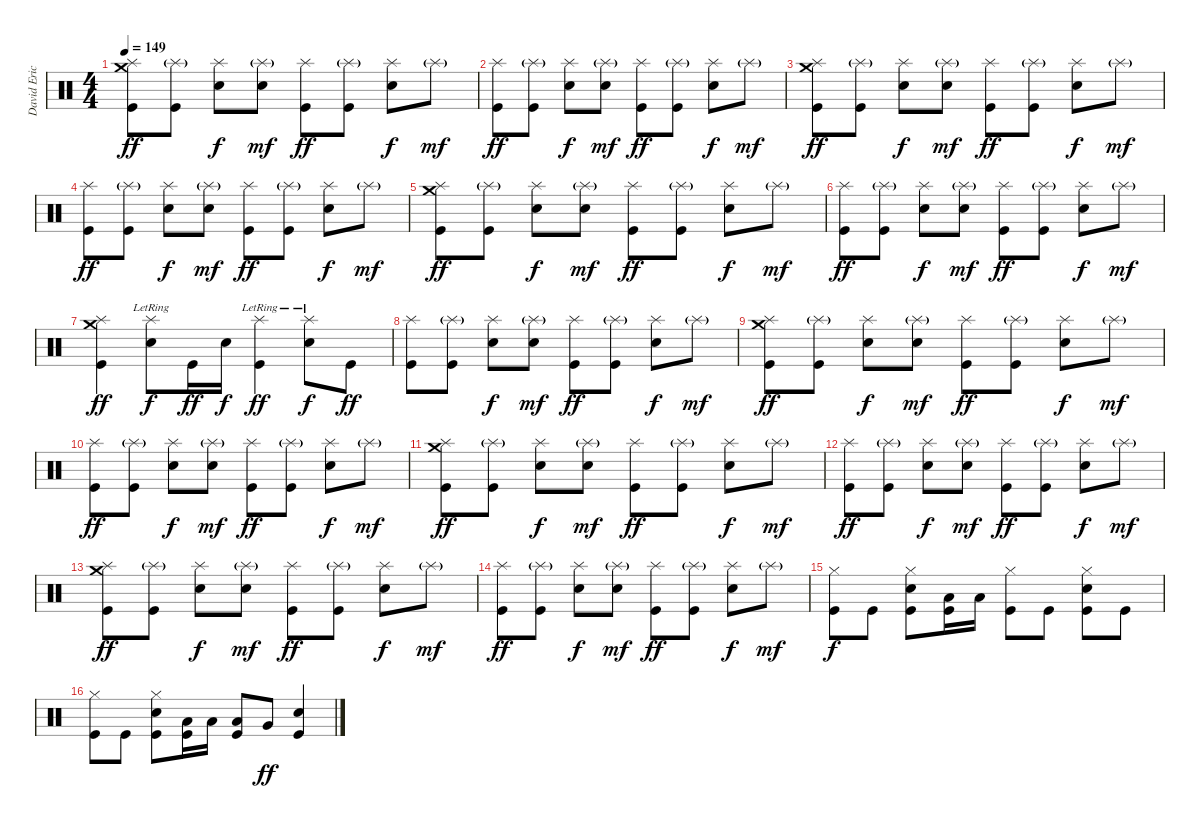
\track ("David Eric Grohl" "David Eric") {instrument percussion}
\staff {score}
\articulation defaults
\ts (4 4)
\tempo 149
\clef neutral
\ks c
("Crash medium (hit)" "Splash (hit)" "Kick (hit)").8{dy ff} ("Splash (hit)"{g} "Kick (hit)").8 ("Splash (hit)" "Snare (hit) 2").8{dy f} ("Splash (hit)"{g} "Snare (hit) 2").8{dy mf} ("Splash (hit)" "Kick (hit)").8{dy ff} ("Splash (hit)"{g} "Kick (hit)").8 ("Splash (hit)" "Snare (hit) 2").8{dy f} "Splash (hit)"{g}.8{dy mf} |
("Splash (hit)" "Kick (hit)").8{dy ff} ("Splash (hit)"{g} "Kick (hit)").8 ("Splash (hit)" "Snare (hit) 2").8{dy f} ("Splash (hit)"{g} "Snare (hit) 2").8{dy mf} ("Splash (hit)" "Kick (hit)").8{dy ff} ("Splash (hit)"{g} "Kick (hit)").8 ("Splash (hit)" "Snare (hit) 2").8{dy f} "Splash (hit)"{g}.8{dy mf} |
("Crash medium (hit)" "Splash (hit)" "Kick (hit)").8{dy ff} ("Splash (hit)"{g} "Kick (hit)").8 ("Splash (hit)" "Snare (hit) 2").8{dy f} ("Splash (hit)"{g} "Snare (hit) 2").8{dy mf} ("Splash (hit)" "Kick (hit)").8{dy ff} ("Splash (hit)"{g} "Kick (hit)").8 ("Splash (hit)" "Snare (hit) 2").8{dy f} "Splash (hit)"{g}.8{dy mf} |
("Splash (hit)" "Kick (hit)").8{dy ff} ("Splash (hit)"{g} "Kick (hit)").8 ("Splash (hit)" "Snare (hit) 2").8{dy f} ("Splash (hit)"{g} "Snare (hit) 2").8{dy mf} ("Splash (hit)" "Kick (hit)").8{dy ff} ("Splash (hit)"{g} "Kick (hit)").8 ("Splash (hit)" "Snare (hit) 2").8{dy f} "Splash (hit)"{g}.8{dy mf} |
("Crash medium (hit)" "Splash (hit)" "Kick (hit)").8{dy ff} ("Splash (hit)"{g} "Kick (hit)").8 ("Splash (hit)" "Snare (hit) 2").8{dy f} ("Splash (hit)"{g} "Snare (hit) 2").8{dy mf} ("Splash (hit)" "Kick (hit)").8{dy ff} ("Splash (hit)"{g} "Kick (hit)").8 ("Splash (hit)" "Snare (hit) 2").8{dy f} "Splash (hit)"{g}.8{dy mf} |
("Splash (hit)" "Kick (hit)").8{dy ff} ("Splash (hit)"{g} "Kick (hit)").8 ("Splash (hit)" "Snare (hit) 2").8{dy f} ("Splash (hit)"{g} "Snare (hit) 2").8{dy mf} ("Splash (hit)" "Kick (hit)").8{dy ff} ("Splash (hit)"{g} "Kick (hit)").8 ("Splash (hit)" "Snare (hit) 2").8{dy f} "Splash (hit)"{g}.8{dy mf} |
("Crash medium (hit)" "Splash (hit)" "Kick (hit)").4{dy ff} ("Splash (hit)"{lr} "Snare (hit) 2").8{dy f} "Kick (hit)".16{dy ff} "Snare (hit) 2".16{dy f} ("Splash (hit)"{lr} "Kick (hit)").4{dy ff} ("Splash (hit)"{lr} "Snare (hit) 2").8{dy f} "Kick (hit)".8{dy ff} |
("Splash (hit)" "Kick (hit)").8 ("Splash (hit)"{g} "Kick (hit)").8 ("Splash (hit)" "Snare (hit) 2").8{dy f} ("Splash (hit)"{g} "Snare (hit) 2").8{dy mf} ("Splash (hit)" "Kick (hit)").8{dy ff} ("Splash (hit)"{g} "Kick (hit)").8 ("Splash (hit)" "Snare (hit) 2").8{dy f} "Splash (hit)"{g}.8{dy mf} |
("Crash medium (hit)" "Splash (hit)" "Kick (hit)").8{dy ff} ("Splash (hit)"{g} "Kick (hit)").8 ("Splash (hit)" "Snare (hit) 2").8{dy f} ("Splash (hit)"{g} "Snare (hit) 2").8{dy mf} ("Splash (hit)" "Kick (hit)").8{dy ff} ("Splash (hit)"{g} "Kick (hit)").8 ("Splash (hit)" "Snare (hit) 2").8{dy f} "Splash (hit)"{g}.8{dy mf} |
("Splash (hit)" "Kick (hit)").8{dy ff} ("Splash (hit)"{g} "Kick (hit)").8 ("Splash (hit)" "Snare (hit) 2").8{dy f} ("Splash (hit)"{g} "Snare (hit) 2").8{dy mf} ("Splash (hit)" "Kick (hit)").8{dy ff} ("Splash (hit)"{g} "Kick (hit)").8 ("Splash (hit)" "Snare (hit) 2").8{dy f} "Splash (hit)"{g}.8{dy mf} |
("Crash medium (hit)" "Splash (hit)" "Kick (hit)").8{dy ff} ("Splash (hit)"{g} "Kick (hit)").8 ("Splash (hit)" "Snare (hit) 2").8{dy f} ("Splash (hit)"{g} "Snare (hit) 2").8{dy mf} ("Splash (hit)" "Kick (hit)").8{dy ff} ("Splash (hit)"{g} "Kick (hit)").8 ("Splash (hit)" "Snare (hit) 2").8{dy f} "Splash (hit)"{g}.8{dy mf} |
("Splash (hit)" "Kick (hit)").8{dy ff} ("Splash (hit)"{g} "Kick (hit)").8 ("Splash (hit)" "Snare (hit) 2").8{dy f} ("Splash (hit)"{g} "Snare (hit) 2").8{dy mf} ("Splash (hit)" "Kick (hit)").8{dy ff} ("Splash (hit)"{g} "Kick (hit)").8 ("Splash (hit)" "Snare (hit) 2").8{dy f} "Splash (hit)"{g}.8{dy mf} |
("Crash medium (hit)" "Splash (hit)" "Kick (hit)").8{dy ff} ("Splash (hit)"{g} "Kick (hit)").8 ("Splash (hit)" "Snare (hit) 2").8{dy f} ("Splash (hit)"{g} "Snare (hit) 2").8{dy mf} ("Splash (hit)" "Kick (hit)").8{dy ff} ("Splash (hit)"{g} "Kick (hit)").8 ("Splash (hit)" "Snare (hit) 2").8{dy f} "Splash (hit)"{g}.8{dy mf} |
("Splash (hit)" "Kick (hit)").8{dy ff} ("Splash (hit)"{g} "Kick (hit)").8 ("Splash (hit)" "Snare (hit) 2").8{dy f} ("Splash (hit)"{g} "Snare (hit) 2").8{dy mf} ("Splash (hit)" "Kick (hit)").8{dy ff} ("Splash (hit)"{g} "Kick (hit)").8 ("Splash (hit)" "Snare (hit) 2").8{dy f} "Splash (hit)"{g}.8{dy mf} |
("Hi-Hat (closed)" "Kick (hit)").8{dy f} "Kick (hit)".8 ("Snare (hit) 2" "Hi-Hat (closed)" "Kick (hit)").8 ("Low Tom (hit)" "Kick (hit)").16 "Low Tom (hit)".16 ("Hi-Hat (closed)" "Kick (hit)").8 "Kick (hit)".8 ("Snare (hit) 2" "Hi-Hat (closed)" "Kick (hit)").8 "Kick (hit)".8 |
("Hi-Hat (closed)" "Kick (hit)").8 "Kick (hit)".8 ("Snare (hit) 2" "Hi-Hat (closed)" "Kick (hit)").8 ("Low Tom (hit)" "Kick (hit)").16 "Low Tom (hit)".16 ("Low Tom (hit)" "Kick (hit)").8 "Very Low Tom (hit)".8{dy ff} ("Snare (hit) 2" "Kick (hit)").4
